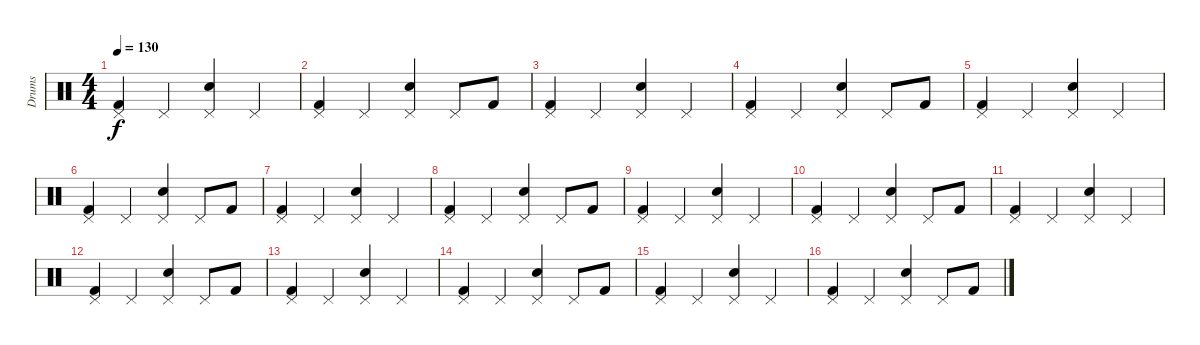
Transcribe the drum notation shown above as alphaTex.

\track ("Drums" "Drums") {instrument percussion}
\staff {score}
\articulation defaults
\ts (4 4)
\tempo 130
\clef neutral
\ks c
("Pedal Hi-Hat (hit)" "Kick (hit) 2").4{dy f} "Pedal Hi-Hat (hit)".4 ("Pedal Hi-Hat (hit)" "Snare (hit) 2").4 "Pedal Hi-Hat (hit)".4 |
("Pedal Hi-Hat (hit)" "Kick (hit) 2").4 "Pedal Hi-Hat (hit)".4 ("Pedal Hi-Hat (hit)" "Snare (hit) 2").4 "Pedal Hi-Hat (hit)".8 "Kick (hit) 2".8 |
("Pedal Hi-Hat (hit)" "Kick (hit) 2").4 "Pedal Hi-Hat (hit)".4 ("Pedal Hi-Hat (hit)" "Snare (hit) 2").4 "Pedal Hi-Hat (hit)".4 |
("Pedal Hi-Hat (hit)" "Kick (hit) 2").4 "Pedal Hi-Hat (hit)".4 ("Pedal Hi-Hat (hit)" "Snare (hit) 2").4 "Pedal Hi-Hat (hit)".8 "Kick (hit) 2".8 |
("Pedal Hi-Hat (hit)" "Kick (hit) 2").4 "Pedal Hi-Hat (hit)".4 ("Pedal Hi-Hat (hit)" "Snare (hit) 2").4 "Pedal Hi-Hat (hit)".4 |
("Pedal Hi-Hat (hit)" "Kick (hit) 2").4 "Pedal Hi-Hat (hit)".4 ("Pedal Hi-Hat (hit)" "Snare (hit) 2").4 "Pedal Hi-Hat (hit)".8 "Kick (hit) 2".8 |
("Pedal Hi-Hat (hit)" "Kick (hit) 2").4 "Pedal Hi-Hat (hit)".4 ("Pedal Hi-Hat (hit)" "Snare (hit) 2").4 "Pedal Hi-Hat (hit)".4 |
("Pedal Hi-Hat (hit)" "Kick (hit) 2").4 "Pedal Hi-Hat (hit)".4 ("Pedal Hi-Hat (hit)" "Snare (hit) 2").4 "Pedal Hi-Hat (hit)".8 "Kick (hit) 2".8 |
("Pedal Hi-Hat (hit)" "Kick (hit) 2").4 "Pedal Hi-Hat (hit)".4 ("Pedal Hi-Hat (hit)" "Snare (hit) 2").4 "Pedal Hi-Hat (hit)".4 |
("Pedal Hi-Hat (hit)" "Kick (hit) 2").4 "Pedal Hi-Hat (hit)".4 ("Pedal Hi-Hat (hit)" "Snare (hit) 2").4 "Pedal Hi-Hat (hit)".8 "Kick (hit) 2".8 |
("Pedal Hi-Hat (hit)" "Kick (hit) 2").4 "Pedal Hi-Hat (hit)".4 ("Pedal Hi-Hat (hit)" "Snare (hit) 2").4 "Pedal Hi-Hat (hit)".4 |
("Pedal Hi-Hat (hit)" "Kick (hit) 2").4 "Pedal Hi-Hat (hit)".4 ("Pedal Hi-Hat (hit)" "Snare (hit) 2").4 "Pedal Hi-Hat (hit)".8 "Kick (hit) 2".8 |
("Pedal Hi-Hat (hit)" "Kick (hit) 2").4 "Pedal Hi-Hat (hit)".4 ("Pedal Hi-Hat (hit)" "Snare (hit) 2").4 "Pedal Hi-Hat (hit)".4 |
("Pedal Hi-Hat (hit)" "Kick (hit) 2").4 "Pedal Hi-Hat (hit)".4 ("Pedal Hi-Hat (hit)" "Snare (hit) 2").4 "Pedal Hi-Hat (hit)".8 "Kick (hit) 2".8 |
("Pedal Hi-Hat (hit)" "Kick (hit) 2").4 "Pedal Hi-Hat (hit)".4 ("Pedal Hi-Hat (hit)" "Snare (hit) 2").4 "Pedal Hi-Hat (hit)".4 |
("Pedal Hi-Hat (hit)" "Kick (hit) 2").4 "Pedal Hi-Hat (hit)".4 ("Pedal Hi-Hat (hit)" "Snare (hit) 2").4 "Pedal Hi-Hat (hit)".8 "Kick (hit) 2".8
